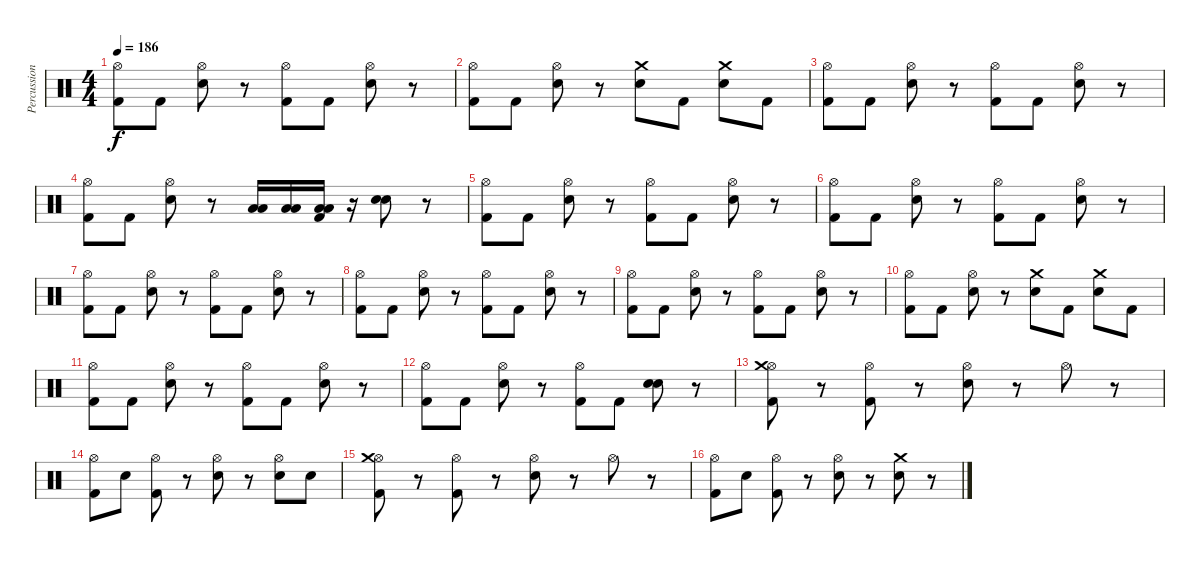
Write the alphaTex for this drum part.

\track ("Percussion" "Percussion") {instrument percussion}
\staff {score}
\articulation defaults
\ts (4 4)
\tempo 186
\clef neutral
\ks c
("Kick (hit) 2" "Hi-Hat (open)").8{dy f} "Kick (hit) 2".8 ("Electric Snare (hit)" "Hi-Hat (open)").8 r.8 ("Kick (hit) 2" "Hi-Hat (open)").8 "Kick (hit) 2".8 ("Electric Snare (hit)" "Hi-Hat (open)").8 r.8 |
("Kick (hit) 2" "Hi-Hat (open)").8 "Kick (hit) 2".8 ("Electric Snare (hit)" "Hi-Hat (open)").8 r.8 ("Electric Snare (hit)" "Crash medium (hit)").8 "Kick (hit) 2".8 ("Electric Snare (hit)" "Crash medium (hit)").8 "Kick (hit) 2".8 |
("Kick (hit) 2" "Hi-Hat (open)").8 "Kick (hit) 2".8 ("Electric Snare (hit)" "Hi-Hat (open)").8 r.8 ("Kick (hit) 2" "Hi-Hat (open)").8 "Kick (hit) 2".8 ("Electric Snare (hit)" "Hi-Hat (open)").8 r.8 |
("Kick (hit) 2" "Hi-Hat (open)").8 "Kick (hit) 2".8 ("Electric Snare (hit)" "Hi-Hat (open)").8 r.8 ("Low Floor Tom (hit)" "Low Floor Tom (hit)").16 ("Low Floor Tom (hit)" "Low Floor Tom (hit)").16 ("Kick (hit) 2" "Low Floor Tom (hit)" "Low Floor Tom (hit)").16 r.16 ("Electric Snare (hit)" "Electric Snare (hit)").8 r.8 |
("Kick (hit) 2" "Hi-Hat (open)").8 "Kick (hit) 2".8 ("Electric Snare (hit)" "Hi-Hat (open)").8 r.8 ("Kick (hit) 2" "Hi-Hat (open)").8 "Kick (hit) 2".8 ("Electric Snare (hit)" "Hi-Hat (open)").8 r.8 |
("Kick (hit) 2" "Hi-Hat (open)").8 "Kick (hit) 2".8 ("Electric Snare (hit)" "Hi-Hat (open)").8 r.8 ("Kick (hit) 2" "Hi-Hat (open)").8 "Kick (hit) 2".8 ("Electric Snare (hit)" "Hi-Hat (open)").8 r.8 |
("Kick (hit) 2" "Hi-Hat (open)").8 "Kick (hit) 2".8 ("Electric Snare (hit)" "Hi-Hat (open)").8 r.8 ("Kick (hit) 2" "Hi-Hat (open)").8 "Kick (hit) 2".8 ("Electric Snare (hit)" "Hi-Hat (open)").8 r.8 |
("Kick (hit) 2" "Hi-Hat (open)").8 "Kick (hit) 2".8 ("Electric Snare (hit)" "Hi-Hat (open)").8 r.8 ("Kick (hit) 2" "Hi-Hat (open)").8 "Kick (hit) 2".8 ("Electric Snare (hit)" "Hi-Hat (open)").8 r.8 |
("Kick (hit) 2" "Hi-Hat (open)").8 "Kick (hit) 2".8 ("Electric Snare (hit)" "Hi-Hat (open)").8 r.8 ("Kick (hit) 2" "Hi-Hat (open)").8 "Kick (hit) 2".8 ("Electric Snare (hit)" "Hi-Hat (open)").8 r.8 |
("Kick (hit) 2" "Hi-Hat (open)").8 "Kick (hit) 2".8 ("Electric Snare (hit)" "Hi-Hat (open)").8 r.8 ("Electric Snare (hit)" "Crash medium (hit)").8 "Kick (hit) 2".8 ("Electric Snare (hit)" "Crash medium (hit)").8 "Kick (hit) 2".8 |
("Kick (hit) 2" "Hi-Hat (open)").8 "Kick (hit) 2".8 ("Electric Snare (hit)" "Hi-Hat (open)").8 r.8 ("Kick (hit) 2" "Hi-Hat (open)").8 "Kick (hit) 2".8 ("Electric Snare (hit)" "Hi-Hat (open)").8 r.8 |
("Kick (hit) 2" "Hi-Hat (open)").8 "Kick (hit) 2".8 ("Electric Snare (hit)" "Hi-Hat (open)").8 r.8 ("Kick (hit) 2" "Hi-Hat (open)").8 "Kick (hit) 2".8 ("Electric Snare (hit)" "Electric Snare (hit)").8 r.8 |
("Kick (hit) 2" "Hi-Hat (open)" "Crash medium (hit)").8 r.8 ("Kick (hit) 2" "Hi-Hat (open)").8 r.8 ("Electric Snare (hit)" "Hi-Hat (open)").8 r.8 "Hi-Hat (open)".8 r.8 |
("Kick (hit) 2" "Hi-Hat (open)").8 "Electric Snare (hit)".8 ("Kick (hit) 2" "Hi-Hat (open)").8 r.8 ("Electric Snare (hit)" "Hi-Hat (open)").8 r.8 ("Electric Snare (hit)" "Hi-Hat (open)").8 "Electric Snare (hit)".8 |
("Kick (hit) 2" "Hi-Hat (open)" "Crash medium (hit)").8 r.8 ("Kick (hit) 2" "Hi-Hat (open)").8 r.8 ("Electric Snare (hit)" "Hi-Hat (open)").8 r.8 "Hi-Hat (open)".8 r.8 |
("Kick (hit) 2" "Hi-Hat (open)").8 "Electric Snare (hit)".8 ("Kick (hit) 2" "Hi-Hat (open)").8 r.8 ("Electric Snare (hit)" "Hi-Hat (open)").8 r.8 ("Electric Snare (hit)" "Crash medium (hit)").8 r.8
